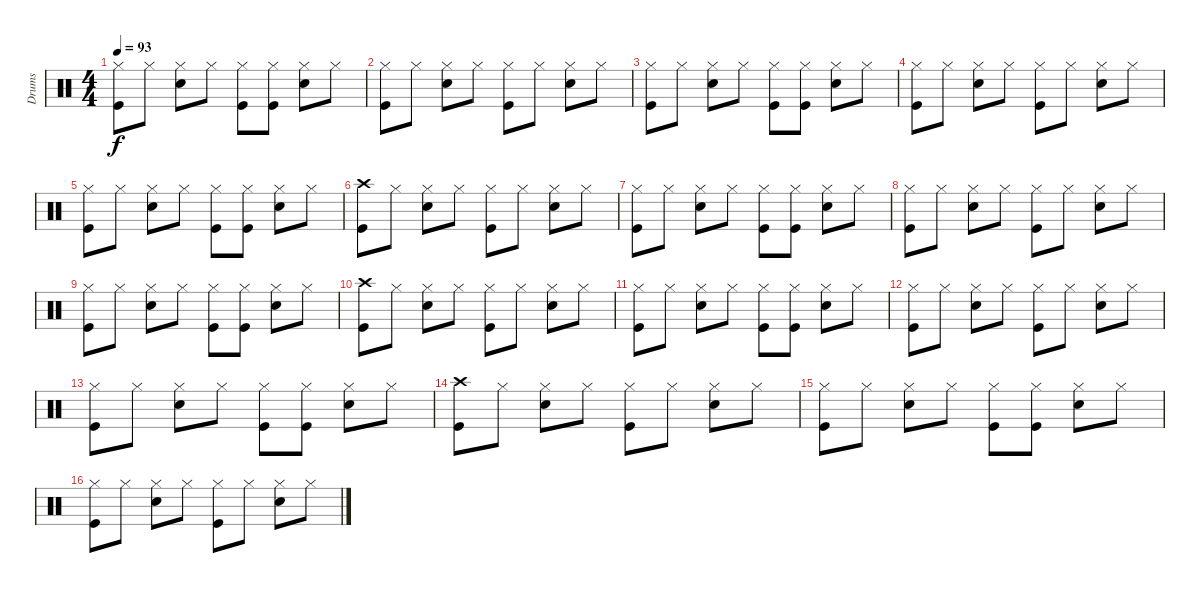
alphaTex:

\track ("Drums" "Drums") {instrument percussion}
\staff {score}
\articulation defaults
\ts (4 4)
\tempo 93
\clef neutral
\ks c
("Hi-Hat (closed)" "Kick (hit)").8{dy f} "Hi-Hat (closed)".8 ("Hi-Hat (closed)" "Snare (hit) 2").8 "Hi-Hat (closed)".8 ("Hi-Hat (closed)" "Kick (hit)").8 ("Hi-Hat (closed)" "Kick (hit)").8 ("Hi-Hat (closed)" "Snare (hit) 2").8 "Hi-Hat (closed)".8 |
("Hi-Hat (closed)" "Kick (hit)").8 "Hi-Hat (closed)".8 ("Hi-Hat (closed)" "Snare (hit) 2").8 "Hi-Hat (closed)".8 ("Hi-Hat (closed)" "Kick (hit)").8 "Hi-Hat (closed)".8 ("Hi-Hat (closed)" "Snare (hit) 2").8 "Hi-Hat (closed)".8 |
("Hi-Hat (closed)" "Kick (hit)").8 "Hi-Hat (closed)".8 ("Hi-Hat (closed)" "Snare (hit) 2").8 "Hi-Hat (closed)".8 ("Hi-Hat (closed)" "Kick (hit)").8 ("Hi-Hat (closed)" "Kick (hit)").8 ("Hi-Hat (closed)" "Snare (hit) 2").8 "Hi-Hat (closed)".8 |
("Hi-Hat (closed)" "Kick (hit)").8 "Hi-Hat (closed)".8 ("Hi-Hat (closed)" "Snare (hit) 2").8 "Hi-Hat (closed)".8 ("Hi-Hat (closed)" "Kick (hit)").8 "Hi-Hat (closed)".8 ("Hi-Hat (closed)" "Snare (hit) 2").8 "Hi-Hat (closed)".8 |
("Hi-Hat (closed)" "Kick (hit)").8 "Hi-Hat (closed)".8 ("Hi-Hat (closed)" "Snare (hit) 2").8 "Hi-Hat (closed)".8 ("Hi-Hat (closed)" "Kick (hit)").8 ("Hi-Hat (closed)" "Kick (hit)").8 ("Hi-Hat (closed)" "Snare (hit) 2").8 "Hi-Hat (closed)".8 |
("Crash high (hit)" "Kick (hit)").8 "Hi-Hat (closed)".8 ("Hi-Hat (closed)" "Snare (hit) 2").8 "Hi-Hat (closed)".8 ("Hi-Hat (closed)" "Kick (hit)").8 "Hi-Hat (closed)".8 ("Hi-Hat (closed)" "Snare (hit) 2").8 "Hi-Hat (closed)".8 |
("Hi-Hat (closed)" "Kick (hit)").8 "Hi-Hat (closed)".8 ("Hi-Hat (closed)" "Snare (hit) 2").8 "Hi-Hat (closed)".8 ("Hi-Hat (closed)" "Kick (hit)").8 ("Hi-Hat (closed)" "Kick (hit)").8 ("Hi-Hat (closed)" "Snare (hit) 2").8 "Hi-Hat (closed)".8 |
("Hi-Hat (closed)" "Kick (hit)").8 "Hi-Hat (closed)".8 ("Hi-Hat (closed)" "Snare (hit) 2").8 "Hi-Hat (closed)".8 ("Hi-Hat (closed)" "Kick (hit)").8 "Hi-Hat (closed)".8 ("Hi-Hat (closed)" "Snare (hit) 2").8 "Hi-Hat (closed)".8 |
("Hi-Hat (closed)" "Kick (hit)").8 "Hi-Hat (closed)".8 ("Hi-Hat (closed)" "Snare (hit) 2").8 "Hi-Hat (closed)".8 ("Hi-Hat (closed)" "Kick (hit)").8 ("Hi-Hat (closed)" "Kick (hit)").8 ("Hi-Hat (closed)" "Snare (hit) 2").8 "Hi-Hat (closed)".8 |
("Crash high (hit)" "Kick (hit)").8 "Hi-Hat (closed)".8 ("Hi-Hat (closed)" "Snare (hit) 2").8 "Hi-Hat (closed)".8 ("Hi-Hat (closed)" "Kick (hit)").8 "Hi-Hat (closed)".8 ("Hi-Hat (closed)" "Snare (hit) 2").8 "Hi-Hat (closed)".8 |
("Hi-Hat (closed)" "Kick (hit)").8 "Hi-Hat (closed)".8 ("Hi-Hat (closed)" "Snare (hit) 2").8 "Hi-Hat (closed)".8 ("Hi-Hat (closed)" "Kick (hit)").8 ("Hi-Hat (closed)" "Kick (hit)").8 ("Hi-Hat (closed)" "Snare (hit) 2").8 "Hi-Hat (closed)".8 |
("Hi-Hat (closed)" "Kick (hit)").8 "Hi-Hat (closed)".8 ("Hi-Hat (closed)" "Snare (hit) 2").8 "Hi-Hat (closed)".8 ("Hi-Hat (closed)" "Kick (hit)").8 "Hi-Hat (closed)".8 ("Hi-Hat (closed)" "Snare (hit) 2").8 "Hi-Hat (closed)".8 |
("Hi-Hat (closed)" "Kick (hit)").8 "Hi-Hat (closed)".8 ("Hi-Hat (closed)" "Snare (hit) 2").8 "Hi-Hat (closed)".8 ("Hi-Hat (closed)" "Kick (hit)").8 ("Hi-Hat (closed)" "Kick (hit)").8 ("Hi-Hat (closed)" "Snare (hit) 2").8 "Hi-Hat (closed)".8 |
("Crash high (hit)" "Kick (hit)").8 "Hi-Hat (closed)".8 ("Hi-Hat (closed)" "Snare (hit) 2").8 "Hi-Hat (closed)".8 ("Hi-Hat (closed)" "Kick (hit)").8 "Hi-Hat (closed)".8 ("Hi-Hat (closed)" "Snare (hit) 2").8 "Hi-Hat (closed)".8 |
("Hi-Hat (closed)" "Kick (hit)").8 "Hi-Hat (closed)".8 ("Hi-Hat (closed)" "Snare (hit) 2").8 "Hi-Hat (closed)".8 ("Hi-Hat (closed)" "Kick (hit)").8 ("Hi-Hat (closed)" "Kick (hit)").8 ("Hi-Hat (closed)" "Snare (hit) 2").8 "Hi-Hat (closed)".8 |
("Hi-Hat (closed)" "Kick (hit)").8 "Hi-Hat (closed)".8 ("Hi-Hat (closed)" "Snare (hit) 2").8 "Hi-Hat (closed)".8 ("Hi-Hat (closed)" "Kick (hit)").8 "Hi-Hat (closed)".8 ("Hi-Hat (closed)" "Snare (hit) 2").8 "Hi-Hat (closed)".8
